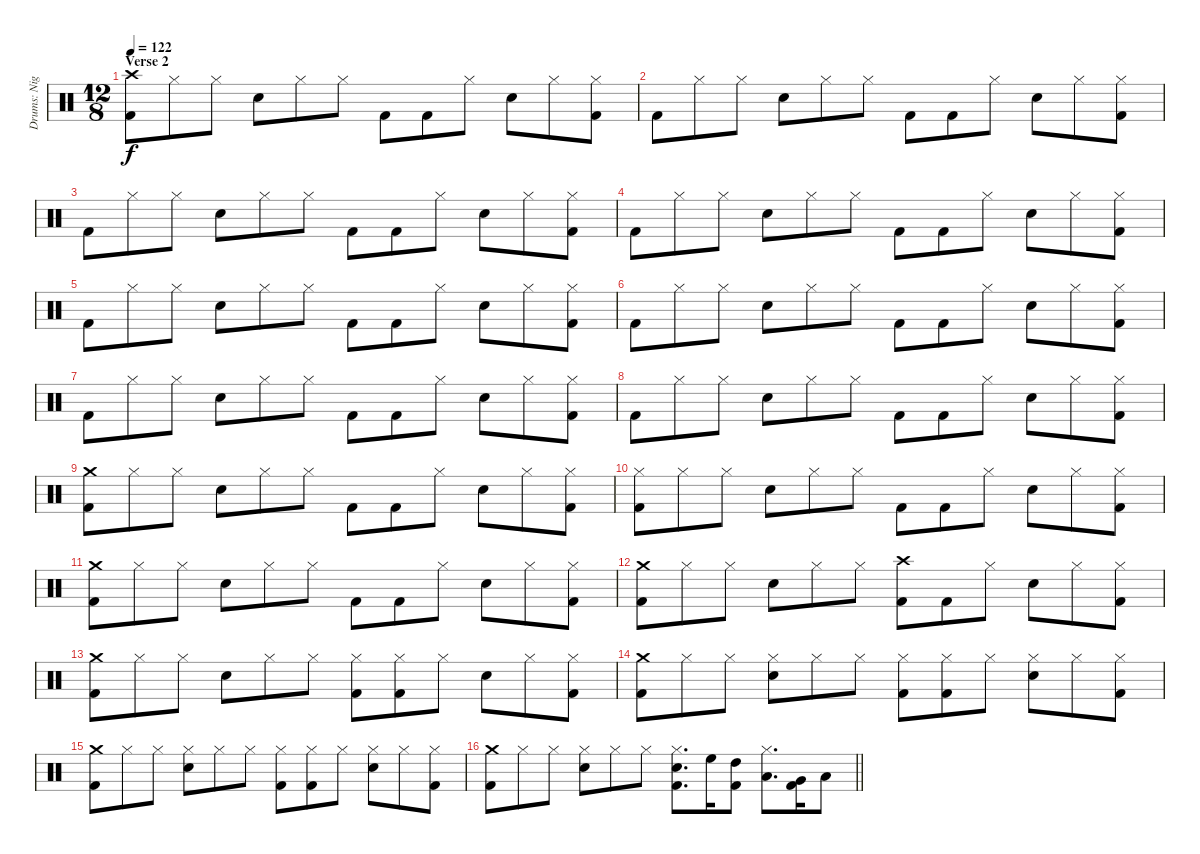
\track ("Drums: Nigel Ollson" "Drums: Nig") {instrument percussion}
\staff {score}
\articulation defaults
\ts (12 8)
\section ("" "Verse 2")
\tempo 122
\clef neutral
\ks c
("Crash high (hit)" "Kick (hit) 2").8{dy f} "Hi-Hat (closed)".8 "Hi-Hat (closed)".8 "Snare (hit) 2".8 "Hi-Hat (closed)".8 "Hi-Hat (closed)".8 "Kick (hit) 2".8 "Kick (hit) 2".8 "Hi-Hat (closed)".8 "Snare (hit) 2".8 "Hi-Hat (closed)".8 ("Hi-Hat (closed)" "Kick (hit) 2").8 |
"Kick (hit) 2".8 "Hi-Hat (closed)".8 "Hi-Hat (closed)".8 "Snare (hit) 2".8 "Hi-Hat (closed)".8 "Hi-Hat (closed)".8 "Kick (hit) 2".8 "Kick (hit) 2".8 "Hi-Hat (closed)".8 "Snare (hit) 2".8 "Hi-Hat (closed)".8 ("Hi-Hat (closed)" "Kick (hit) 2").8 |
"Kick (hit) 2".8 "Hi-Hat (closed)".8 "Hi-Hat (closed)".8 "Snare (hit) 2".8 "Hi-Hat (closed)".8 "Hi-Hat (closed)".8 "Kick (hit) 2".8 "Kick (hit) 2".8 "Hi-Hat (closed)".8 "Snare (hit) 2".8 "Hi-Hat (closed)".8 ("Hi-Hat (closed)" "Kick (hit) 2").8 |
"Kick (hit) 2".8 "Hi-Hat (closed)".8 "Hi-Hat (closed)".8 "Snare (hit) 2".8 "Hi-Hat (closed)".8 "Hi-Hat (closed)".8 "Kick (hit) 2".8 "Kick (hit) 2".8 "Hi-Hat (closed)".8 "Snare (hit) 2".8 "Hi-Hat (closed)".8 ("Hi-Hat (closed)" "Kick (hit) 2").8 |
"Kick (hit) 2".8 "Hi-Hat (closed)".8 "Hi-Hat (closed)".8 "Snare (hit) 2".8 "Hi-Hat (closed)".8 "Hi-Hat (closed)".8 "Kick (hit) 2".8 "Kick (hit) 2".8 "Hi-Hat (closed)".8 "Snare (hit) 2".8 "Hi-Hat (closed)".8 ("Hi-Hat (closed)" "Kick (hit) 2").8 |
"Kick (hit) 2".8 "Hi-Hat (closed)".8 "Hi-Hat (closed)".8 "Snare (hit) 2".8 "Hi-Hat (closed)".8 "Hi-Hat (closed)".8 "Kick (hit) 2".8 "Kick (hit) 2".8 "Hi-Hat (closed)".8 "Snare (hit) 2".8 "Hi-Hat (closed)".8 ("Hi-Hat (closed)" "Kick (hit) 2").8 |
"Kick (hit) 2".8 "Hi-Hat (closed)".8 "Hi-Hat (closed)".8 "Snare (hit) 2".8 "Hi-Hat (closed)".8 "Hi-Hat (closed)".8 "Kick (hit) 2".8 "Kick (hit) 2".8 "Hi-Hat (closed)".8 "Snare (hit) 2".8 "Hi-Hat (closed)".8 ("Hi-Hat (closed)" "Kick (hit) 2").8 |
"Kick (hit) 2".8 "Hi-Hat (closed)".8 "Hi-Hat (closed)".8 "Snare (hit) 2".8 "Hi-Hat (closed)".8 "Hi-Hat (closed)".8 "Kick (hit) 2".8 "Kick (hit) 2".8 "Hi-Hat (closed)".8 "Snare (hit) 2".8 "Hi-Hat (closed)".8 ("Hi-Hat (closed)" "Kick (hit) 2").8 |
("Crash medium (hit)" "Kick (hit) 2").8 "Hi-Hat (closed)".8 "Hi-Hat (closed)".8 "Snare (hit) 2".8 "Hi-Hat (closed)".8 "Hi-Hat (closed)".8 "Kick (hit) 2".8 "Kick (hit) 2".8 "Hi-Hat (closed)".8 "Snare (hit) 2".8 "Hi-Hat (closed)".8 ("Hi-Hat (closed)" "Kick (hit) 2").8 |
("Hi-Hat (closed)" "Kick (hit) 2").8 "Hi-Hat (closed)".8 "Hi-Hat (closed)".8 "Snare (hit) 2".8 "Hi-Hat (closed)".8 "Hi-Hat (closed)".8 "Kick (hit) 2".8 "Kick (hit) 2".8 "Hi-Hat (closed)".8 "Snare (hit) 2".8 "Hi-Hat (closed)".8 ("Hi-Hat (closed)" "Kick (hit) 2").8 |
("Crash medium (hit)" "Kick (hit) 2").8 "Hi-Hat (closed)".8 "Hi-Hat (closed)".8 "Snare (hit) 2".8 "Hi-Hat (closed)".8 "Hi-Hat (closed)".8 "Kick (hit) 2".8 "Kick (hit) 2".8 "Hi-Hat (closed)".8 "Snare (hit) 2".8 "Hi-Hat (closed)".8 ("Hi-Hat (closed)" "Kick (hit) 2").8 |
("Crash medium (hit)" "Kick (hit) 2").8 "Hi-Hat (closed)".8 "Hi-Hat (closed)".8 "Snare (hit) 2".8 "Hi-Hat (closed)".8 "Hi-Hat (closed)".8 ("Crash high (hit)" "Kick (hit) 2").8 "Kick (hit) 2".8 "Hi-Hat (closed)".8 "Snare (hit) 2".8 "Hi-Hat (closed)".8 ("Hi-Hat (closed)" "Kick (hit) 2").8 |
("Crash medium (hit)" "Kick (hit) 2").8 "Hi-Hat (closed)".8 "Hi-Hat (closed)".8 "Snare (hit) 2".8 "Hi-Hat (closed)".8 "Hi-Hat (closed)".8 ("Hi-Hat (closed)" "Kick (hit) 2").8 ("Hi-Hat (closed)" "Kick (hit) 2").8 "Hi-Hat (closed)".8 "Snare (hit) 2".8 "Hi-Hat (closed)".8 ("Hi-Hat (closed)" "Kick (hit) 2").8 |
("Crash medium (hit)" "Kick (hit) 2").8 "Hi-Hat (closed)".8 "Hi-Hat (closed)".8 ("Hi-Hat (closed)" "Snare (hit) 2").8 "Hi-Hat (closed)".8 "Hi-Hat (closed)".8 ("Hi-Hat (closed)" "Kick (hit) 2").8 ("Hi-Hat (closed)" "Kick (hit) 2").8 "Hi-Hat (closed)".8 ("Hi-Hat (closed)" "Snare (hit) 2").8 "Hi-Hat (closed)".8 ("Hi-Hat (closed)" "Kick (hit) 2").8 |
("Crash medium (hit)" "Kick (hit) 2").8 "Hi-Hat (closed)".8 "Hi-Hat (closed)".8 ("Hi-Hat (closed)" "Snare (hit) 2").8 "Hi-Hat (closed)".8 "Hi-Hat (closed)".8 ("Hi-Hat (closed)" "Kick (hit) 2").8 ("Hi-Hat (closed)" "Kick (hit) 2").8 "Hi-Hat (closed)".8 ("Hi-Hat (closed)" "Snare (hit) 2").8 "Hi-Hat (closed)".8 ("Hi-Hat (closed)" "Kick (hit) 2").8 |
\barLineRight lightlight
("Crash medium (hit)" "Kick (hit) 2").8 "Hi-Hat (closed)".8 "Hi-Hat (closed)".8 ("Hi-Hat (closed)" "Snare (hit) 2").8 "Hi-Hat (closed)".8 "Hi-Hat (closed)".8 ("Hi-Hat (closed)" "Snare (hit) 2" "Kick (hit) 2").8{d} "High Floor Tom (hit)".16 ("High Tom (hit)" "Kick (hit) 2").8 ("Hi-Hat (closed)" "Low Tom (hit)").8{d} ("Very Low Tom (hit)" "Kick (hit) 2").16 "Low Floor Tom (hit)".8
